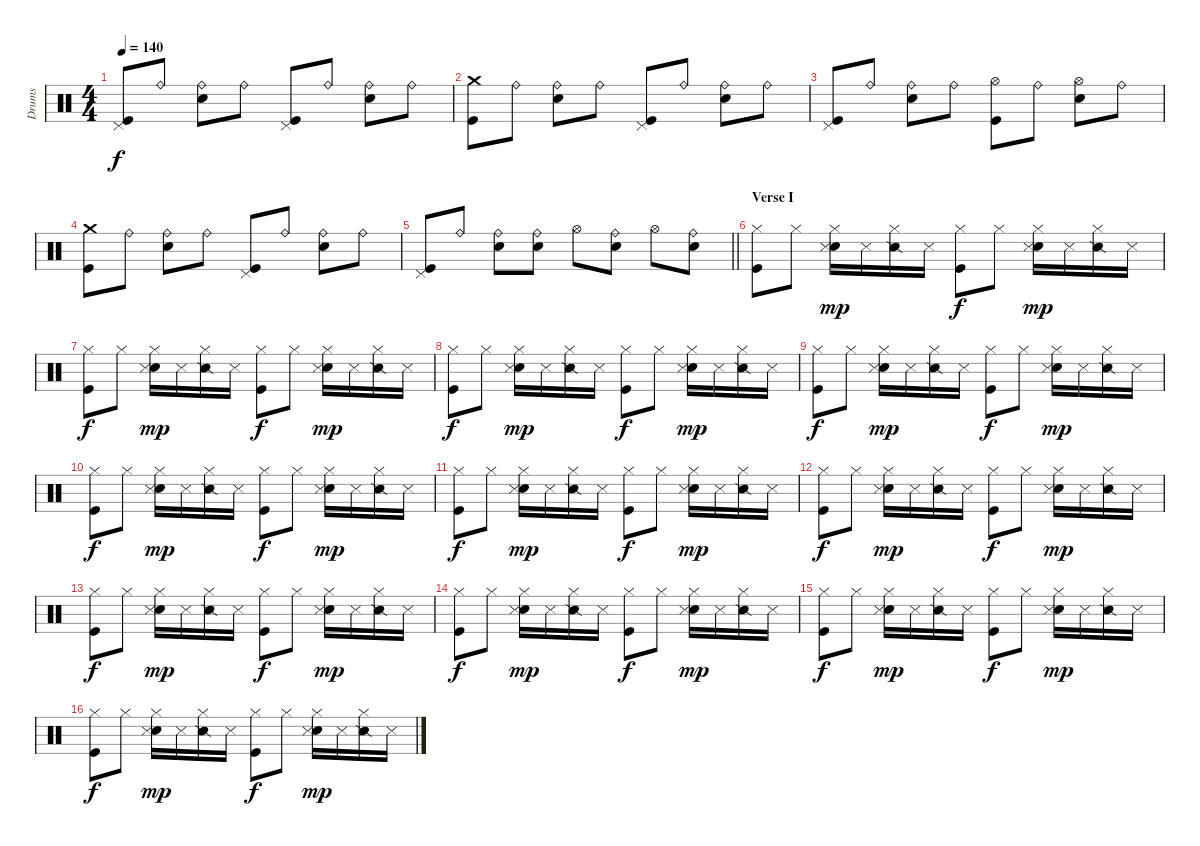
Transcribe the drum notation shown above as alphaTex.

\track ("Drums" "Drums") {instrument percussion}
\staff {score}
\articulation defaults
\ts (4 4)
\tempo 140
\clef neutral
\ks c
("Pedal Hi-Hat (hit)" "Kick (hit)").8{dy f} "Ride (bell)".8 ("Ride (bell)" "Snare (hit) 2").8 "Ride (bell)".8 ("Pedal Hi-Hat (hit)" "Kick (hit)").8 "Ride (bell)".8 ("Ride (bell)" "Snare (hit) 2").8 "Ride (bell)".8 |
("Crash medium (hit)" "Kick (hit)").8 "Ride (bell)".8 ("Ride (bell)" "Snare (hit) 2").8 "Ride (bell)".8 ("Pedal Hi-Hat (hit)" "Kick (hit)").8 "Ride (bell)".8 ("Ride (bell)" "Snare (hit) 2").8 "Ride (bell)".8 |
("Pedal Hi-Hat (hit)" "Kick (hit)").8 "Ride (bell)".8 ("Ride (bell)" "Snare (hit) 2").8 "Ride (bell)".8 ("Hi-Hat (open)" "Kick (hit)").8 "Ride (bell)".8 ("Hi-Hat (open)" "Snare (hit) 2").8 "Ride (bell)".8 |
("Crash medium (hit)" "Kick (hit)").8 "Ride (bell)".8 ("Ride (bell)" "Snare (hit) 2").8 "Ride (bell)".8 ("Pedal Hi-Hat (hit)" "Kick (hit)").8 "Ride (bell)".8 ("Ride (bell)" "Snare (hit) 2").8 "Ride (bell)".8 |
\barLineRight lightlight
("Pedal Hi-Hat (hit)" "Kick (hit)").8 "Ride (bell)".8 ("Ride (bell)" "Snare (hit) 2").8 ("Ride (bell)" "Snare (hit) 2").8 "Hi-Hat (open)".8 ("Ride (bell)" "Snare (hit) 2").8 "Hi-Hat (open)".8 ("Ride (bell)" "Snare (hit) 2").8 |
\section ("" "Verse I")
("Hi-Hat (closed)" "Kick (hit)").8 "Hi-Hat (closed)".8 ("Hi-Hat (closed)" "Snare (hit) 2" "Snare (side stick) 3").16{dy mp} "Metronome (hit)".16 ("Hi-Hat (closed)" "Snare (side stick) 2").16 "Metronome (hit)".16 ("Hi-Hat (closed)" "Kick (hit)").8{dy f} "Hi-Hat (closed)".8 ("Hi-Hat (closed)" "Snare (hit) 2" "Snare (side stick) 3").16{dy mp} "Metronome (hit)".16 ("Hi-Hat (closed)" "Snare (side stick) 2").16 "Metronome (hit)".16 |
("Hi-Hat (closed)" "Kick (hit)").8{dy f} "Hi-Hat (closed)".8 ("Hi-Hat (closed)" "Snare (hit) 2" "Snare (side stick) 3").16{dy mp} "Metronome (hit)".16 ("Hi-Hat (closed)" "Snare (side stick) 2").16 "Metronome (hit)".16 ("Hi-Hat (closed)" "Kick (hit)").8{dy f} "Hi-Hat (closed)".8 ("Hi-Hat (closed)" "Snare (hit) 2" "Snare (side stick) 3").16{dy mp} "Metronome (hit)".16 ("Hi-Hat (closed)" "Snare (side stick) 2").16 "Metronome (hit)".16 |
("Hi-Hat (closed)" "Kick (hit)").8{dy f} "Hi-Hat (closed)".8 ("Hi-Hat (closed)" "Snare (hit) 2" "Snare (side stick) 3").16{dy mp} "Metronome (hit)".16 ("Hi-Hat (closed)" "Snare (side stick) 2").16 "Metronome (hit)".16 ("Hi-Hat (closed)" "Kick (hit)").8{dy f} "Hi-Hat (closed)".8 ("Hi-Hat (closed)" "Snare (hit) 2" "Snare (side stick) 3").16{dy mp} "Metronome (hit)".16 ("Hi-Hat (closed)" "Snare (side stick) 2").16 "Metronome (hit)".16 |
("Hi-Hat (closed)" "Kick (hit)").8{dy f} "Hi-Hat (closed)".8 ("Hi-Hat (closed)" "Snare (hit) 2" "Snare (side stick) 3").16{dy mp} "Metronome (hit)".16 ("Hi-Hat (closed)" "Snare (side stick) 2").16 "Metronome (hit)".16 ("Hi-Hat (closed)" "Kick (hit)").8{dy f} "Hi-Hat (closed)".8 ("Hi-Hat (closed)" "Snare (hit) 2" "Snare (side stick) 3").16{dy mp} "Metronome (hit)".16 ("Hi-Hat (closed)" "Snare (side stick) 2").16 "Metronome (hit)".16 |
("Hi-Hat (closed)" "Kick (hit)").8{dy f} "Hi-Hat (closed)".8 ("Hi-Hat (closed)" "Snare (hit) 2" "Snare (side stick) 3").16{dy mp} "Metronome (hit)".16 ("Hi-Hat (closed)" "Snare (side stick) 2").16 "Metronome (hit)".16 ("Hi-Hat (closed)" "Kick (hit)").8{dy f} "Hi-Hat (closed)".8 ("Hi-Hat (closed)" "Snare (hit) 2" "Snare (side stick) 3").16{dy mp} "Metronome (hit)".16 ("Hi-Hat (closed)" "Snare (side stick) 2").16 "Metronome (hit)".16 |
("Hi-Hat (closed)" "Kick (hit)").8{dy f} "Hi-Hat (closed)".8 ("Hi-Hat (closed)" "Snare (hit) 2" "Snare (side stick) 3").16{dy mp} "Metronome (hit)".16 ("Hi-Hat (closed)" "Snare (side stick) 2").16 "Metronome (hit)".16 ("Hi-Hat (closed)" "Kick (hit)").8{dy f} "Hi-Hat (closed)".8 ("Hi-Hat (closed)" "Snare (hit) 2" "Snare (side stick) 3").16{dy mp} "Metronome (hit)".16 ("Hi-Hat (closed)" "Snare (side stick) 2").16 "Metronome (hit)".16 |
("Hi-Hat (closed)" "Kick (hit)").8{dy f} "Hi-Hat (closed)".8 ("Hi-Hat (closed)" "Snare (hit) 2" "Snare (side stick) 3").16{dy mp} "Metronome (hit)".16 ("Hi-Hat (closed)" "Snare (side stick) 2").16 "Metronome (hit)".16 ("Hi-Hat (closed)" "Kick (hit)").8{dy f} "Hi-Hat (closed)".8 ("Hi-Hat (closed)" "Snare (hit) 2" "Snare (side stick) 3").16{dy mp} "Metronome (hit)".16 ("Hi-Hat (closed)" "Snare (side stick) 2").16 "Metronome (hit)".16 |
("Hi-Hat (closed)" "Kick (hit)").8{dy f} "Hi-Hat (closed)".8 ("Hi-Hat (closed)" "Snare (hit) 2" "Snare (side stick) 3").16{dy mp} "Metronome (hit)".16 ("Hi-Hat (closed)" "Snare (side stick) 2").16 "Metronome (hit)".16 ("Hi-Hat (closed)" "Kick (hit)").8{dy f} "Hi-Hat (closed)".8 ("Hi-Hat (closed)" "Snare (hit) 2" "Snare (side stick) 3").16{dy mp} "Metronome (hit)".16 ("Hi-Hat (closed)" "Snare (side stick) 2").16 "Metronome (hit)".16 |
("Hi-Hat (closed)" "Kick (hit)").8{dy f} "Hi-Hat (closed)".8 ("Hi-Hat (closed)" "Snare (hit) 2" "Snare (side stick) 3").16{dy mp} "Metronome (hit)".16 ("Hi-Hat (closed)" "Snare (side stick) 2").16 "Metronome (hit)".16 ("Hi-Hat (closed)" "Kick (hit)").8{dy f} "Hi-Hat (closed)".8 ("Hi-Hat (closed)" "Snare (hit) 2" "Snare (side stick) 3").16{dy mp} "Metronome (hit)".16 ("Hi-Hat (closed)" "Snare (side stick) 2").16 "Metronome (hit)".16 |
("Hi-Hat (closed)" "Kick (hit)").8{dy f} "Hi-Hat (closed)".8 ("Hi-Hat (closed)" "Snare (hit) 2" "Snare (side stick) 3").16{dy mp} "Metronome (hit)".16 ("Hi-Hat (closed)" "Snare (side stick) 2").16 "Metronome (hit)".16 ("Hi-Hat (closed)" "Kick (hit)").8{dy f} "Hi-Hat (closed)".8 ("Hi-Hat (closed)" "Snare (hit) 2" "Snare (side stick) 3").16{dy mp} "Metronome (hit)".16 ("Hi-Hat (closed)" "Snare (side stick) 2").16 "Metronome (hit)".16 |
("Hi-Hat (closed)" "Kick (hit)").8{dy f} "Hi-Hat (closed)".8 ("Hi-Hat (closed)" "Snare (hit) 2" "Snare (side stick) 3").16{dy mp} "Metronome (hit)".16 ("Hi-Hat (closed)" "Snare (side stick) 2").16 "Metronome (hit)".16 ("Hi-Hat (closed)" "Kick (hit)").8{dy f} "Hi-Hat (closed)".8 ("Hi-Hat (closed)" "Snare (hit) 2" "Snare (side stick) 3").16{dy mp} "Metronome (hit)".16 ("Hi-Hat (closed)" "Snare (side stick) 2").16 "Metronome (hit)".16
